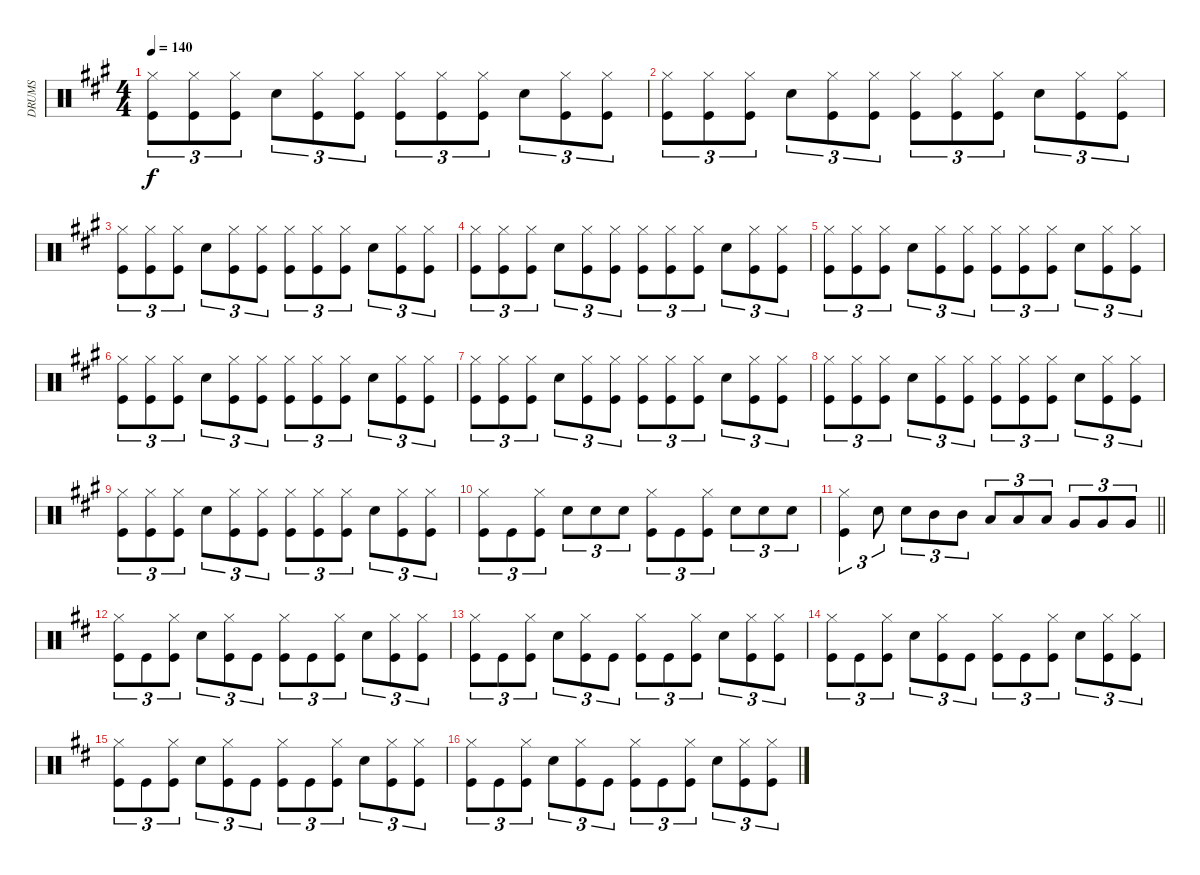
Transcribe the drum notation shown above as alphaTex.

\track ("DRUMS" "DRUMS") {instrument percussion}
\staff {score}
\articulation defaults
\ts (4 4)
\tempo 140
\clef neutral
\ks a
("Hi-Hat (closed)" "Kick (hit)").8{tu (3 2) dy f} ("Hi-Hat (closed)" "Kick (hit)").8{tu (3 2)} ("Hi-Hat (closed)" "Kick (hit)").8{tu (3 2)} "Snare (hit) 2".8{tu (3 2)} ("Hi-Hat (closed)" "Kick (hit)").8{tu (3 2)} ("Hi-Hat (closed)" "Kick (hit)").8{tu (3 2)} ("Hi-Hat (closed)" "Kick (hit)").8{tu (3 2)} ("Hi-Hat (closed)" "Kick (hit)").8{tu (3 2)} ("Hi-Hat (closed)" "Kick (hit)").8{tu (3 2)} "Snare (hit) 2".8{tu (3 2)} ("Hi-Hat (closed)" "Kick (hit)").8{tu (3 2)} ("Hi-Hat (closed)" "Kick (hit)").8{tu (3 2)} |
("Hi-Hat (closed)" "Kick (hit)").8{tu (3 2)} ("Hi-Hat (closed)" "Kick (hit)").8{tu (3 2)} ("Hi-Hat (closed)" "Kick (hit)").8{tu (3 2)} "Snare (hit) 2".8{tu (3 2)} ("Hi-Hat (closed)" "Kick (hit)").8{tu (3 2)} ("Hi-Hat (closed)" "Kick (hit)").8{tu (3 2)} ("Hi-Hat (closed)" "Kick (hit)").8{tu (3 2)} ("Hi-Hat (closed)" "Kick (hit)").8{tu (3 2)} ("Hi-Hat (closed)" "Kick (hit)").8{tu (3 2)} "Snare (hit) 2".8{tu (3 2)} ("Hi-Hat (closed)" "Kick (hit)").8{tu (3 2)} ("Hi-Hat (closed)" "Kick (hit)").8{tu (3 2)} |
("Hi-Hat (closed)" "Kick (hit)").8{tu (3 2)} ("Hi-Hat (closed)" "Kick (hit)").8{tu (3 2)} ("Hi-Hat (closed)" "Kick (hit)").8{tu (3 2)} "Snare (hit) 2".8{tu (3 2)} ("Hi-Hat (closed)" "Kick (hit)").8{tu (3 2)} ("Hi-Hat (closed)" "Kick (hit)").8{tu (3 2)} ("Hi-Hat (closed)" "Kick (hit)").8{tu (3 2)} ("Hi-Hat (closed)" "Kick (hit)").8{tu (3 2)} ("Hi-Hat (closed)" "Kick (hit)").8{tu (3 2)} "Snare (hit) 2".8{tu (3 2)} ("Hi-Hat (closed)" "Kick (hit)").8{tu (3 2)} ("Hi-Hat (closed)" "Kick (hit)").8{tu (3 2)} |
("Hi-Hat (closed)" "Kick (hit)").8{tu (3 2)} ("Hi-Hat (closed)" "Kick (hit)").8{tu (3 2)} ("Hi-Hat (closed)" "Kick (hit)").8{tu (3 2)} "Snare (hit) 2".8{tu (3 2)} ("Hi-Hat (closed)" "Kick (hit)").8{tu (3 2)} ("Hi-Hat (closed)" "Kick (hit)").8{tu (3 2)} ("Hi-Hat (closed)" "Kick (hit)").8{tu (3 2)} ("Hi-Hat (closed)" "Kick (hit)").8{tu (3 2)} ("Hi-Hat (closed)" "Kick (hit)").8{tu (3 2)} "Snare (hit) 2".8{tu (3 2)} ("Hi-Hat (closed)" "Kick (hit)").8{tu (3 2)} ("Hi-Hat (closed)" "Kick (hit)").8{tu (3 2)} |
("Hi-Hat (closed)" "Kick (hit)").8{tu (3 2)} ("Hi-Hat (closed)" "Kick (hit)").8{tu (3 2)} ("Hi-Hat (closed)" "Kick (hit)").8{tu (3 2)} "Snare (hit) 2".8{tu (3 2)} ("Hi-Hat (closed)" "Kick (hit)").8{tu (3 2)} ("Hi-Hat (closed)" "Kick (hit)").8{tu (3 2)} ("Hi-Hat (closed)" "Kick (hit)").8{tu (3 2)} ("Hi-Hat (closed)" "Kick (hit)").8{tu (3 2)} ("Hi-Hat (closed)" "Kick (hit)").8{tu (3 2)} "Snare (hit) 2".8{tu (3 2)} ("Hi-Hat (closed)" "Kick (hit)").8{tu (3 2)} ("Hi-Hat (closed)" "Kick (hit)").8{tu (3 2)} |
("Hi-Hat (closed)" "Kick (hit)").8{tu (3 2)} ("Hi-Hat (closed)" "Kick (hit)").8{tu (3 2)} ("Hi-Hat (closed)" "Kick (hit)").8{tu (3 2)} "Snare (hit) 2".8{tu (3 2)} ("Hi-Hat (closed)" "Kick (hit)").8{tu (3 2)} ("Hi-Hat (closed)" "Kick (hit)").8{tu (3 2)} ("Hi-Hat (closed)" "Kick (hit)").8{tu (3 2)} ("Hi-Hat (closed)" "Kick (hit)").8{tu (3 2)} ("Hi-Hat (closed)" "Kick (hit)").8{tu (3 2)} "Snare (hit) 2".8{tu (3 2)} ("Hi-Hat (closed)" "Kick (hit)").8{tu (3 2)} ("Hi-Hat (closed)" "Kick (hit)").8{tu (3 2)} |
("Hi-Hat (closed)" "Kick (hit)").8{tu (3 2)} ("Hi-Hat (closed)" "Kick (hit)").8{tu (3 2)} ("Hi-Hat (closed)" "Kick (hit)").8{tu (3 2)} "Snare (hit) 2".8{tu (3 2)} ("Hi-Hat (closed)" "Kick (hit)").8{tu (3 2)} ("Hi-Hat (closed)" "Kick (hit)").8{tu (3 2)} ("Hi-Hat (closed)" "Kick (hit)").8{tu (3 2)} ("Hi-Hat (closed)" "Kick (hit)").8{tu (3 2)} ("Hi-Hat (closed)" "Kick (hit)").8{tu (3 2)} "Snare (hit) 2".8{tu (3 2)} ("Hi-Hat (closed)" "Kick (hit)").8{tu (3 2)} ("Hi-Hat (closed)" "Kick (hit)").8{tu (3 2)} |
("Hi-Hat (closed)" "Kick (hit)").8{tu (3 2)} ("Hi-Hat (closed)" "Kick (hit)").8{tu (3 2)} ("Hi-Hat (closed)" "Kick (hit)").8{tu (3 2)} "Snare (hit) 2".8{tu (3 2)} ("Hi-Hat (closed)" "Kick (hit)").8{tu (3 2)} ("Hi-Hat (closed)" "Kick (hit)").8{tu (3 2)} ("Hi-Hat (closed)" "Kick (hit)").8{tu (3 2)} ("Hi-Hat (closed)" "Kick (hit)").8{tu (3 2)} ("Hi-Hat (closed)" "Kick (hit)").8{tu (3 2)} "Snare (hit) 2".8{tu (3 2)} ("Hi-Hat (closed)" "Kick (hit)").8{tu (3 2)} ("Hi-Hat (closed)" "Kick (hit)").8{tu (3 2)} |
("Hi-Hat (closed)" "Kick (hit)").8{tu (3 2)} ("Hi-Hat (closed)" "Kick (hit)").8{tu (3 2)} ("Hi-Hat (closed)" "Kick (hit)").8{tu (3 2)} "Snare (hit) 2".8{tu (3 2)} ("Hi-Hat (closed)" "Kick (hit)").8{tu (3 2)} ("Hi-Hat (closed)" "Kick (hit)").8{tu (3 2)} ("Hi-Hat (closed)" "Kick (hit)").8{tu (3 2)} ("Hi-Hat (closed)" "Kick (hit)").8{tu (3 2)} ("Hi-Hat (closed)" "Kick (hit)").8{tu (3 2)} "Snare (hit) 2".8{tu (3 2)} ("Hi-Hat (closed)" "Kick (hit)").8{tu (3 2)} ("Hi-Hat (closed)" "Kick (hit)").8{tu (3 2)} |
("Hi-Hat (closed)" "Kick (hit)").8{tu (3 2)} "Kick (hit)".8{tu (3 2)} ("Hi-Hat (closed)" "Kick (hit)").8{tu (3 2)} "Snare (hit) 2".8{tu (3 2)} "Snare (hit) 2".8{tu (3 2)} "Snare (hit) 2".8{tu (3 2)} ("Hi-Hat (closed)" "Kick (hit)").8{tu (3 2)} "Kick (hit)".8{tu (3 2)} ("Hi-Hat (closed)" "Kick (hit)").8{tu (3 2)} "Snare (hit) 2".8{tu (3 2)} "Snare (hit) 2".8{tu (3 2)} "Snare (hit) 2".8{tu (3 2)} |
\barLineRight lightlight
("Hi-Hat (closed)" "Kick (hit)").4{tu (3 2)} "Snare (hit) 2".8{tu (3 2)} "Snare (hit) 2".8{tu (3 2)} "Mid Tom (hit)".8{tu (3 2)} "Mid Tom (hit)".8{tu (3 2)} "Low Tom (hit)".8{tu (3 2)} "Low Tom (hit)".8{tu (3 2)} "Low Tom (hit)".8{tu (3 2)} "Very Low Tom (hit)".8{tu (3 2)} "Very Low Tom (hit)".8{tu (3 2)} "Very Low Tom (hit)".8{tu (3 2)} |
\ks d
("Hi-Hat (closed)" "Kick (hit)").8{tu (3 2)} "Kick (hit)".8{tu (3 2)} ("Hi-Hat (closed)" "Kick (hit)").8{tu (3 2)} "Snare (hit) 2".8{tu (3 2)} ("Hi-Hat (closed)" "Kick (hit)").8{tu (3 2)} "Kick (hit)".8{tu (3 2)} ("Hi-Hat (closed)" "Kick (hit)").8{tu (3 2)} "Kick (hit)".8{tu (3 2)} ("Hi-Hat (closed)" "Kick (hit)").8{tu (3 2)} "Snare (hit) 2".8{tu (3 2)} ("Hi-Hat (closed)" "Kick (hit)").8{tu (3 2)} ("Hi-Hat (closed)" "Kick (hit)").8{tu (3 2)} |
("Hi-Hat (closed)" "Kick (hit)").8{tu (3 2)} "Kick (hit)".8{tu (3 2)} ("Hi-Hat (closed)" "Kick (hit)").8{tu (3 2)} "Snare (hit) 2".8{tu (3 2)} ("Hi-Hat (closed)" "Kick (hit)").8{tu (3 2)} "Kick (hit)".8{tu (3 2)} ("Hi-Hat (closed)" "Kick (hit)").8{tu (3 2)} "Kick (hit)".8{tu (3 2)} ("Hi-Hat (closed)" "Kick (hit)").8{tu (3 2)} "Snare (hit) 2".8{tu (3 2)} ("Hi-Hat (closed)" "Kick (hit)").8{tu (3 2)} ("Hi-Hat (closed)" "Kick (hit)").8{tu (3 2)} |
("Hi-Hat (closed)" "Kick (hit)").8{tu (3 2)} "Kick (hit)".8{tu (3 2)} ("Hi-Hat (closed)" "Kick (hit)").8{tu (3 2)} "Snare (hit) 2".8{tu (3 2)} ("Hi-Hat (closed)" "Kick (hit)").8{tu (3 2)} "Kick (hit)".8{tu (3 2)} ("Hi-Hat (closed)" "Kick (hit)").8{tu (3 2)} "Kick (hit)".8{tu (3 2)} ("Hi-Hat (closed)" "Kick (hit)").8{tu (3 2)} "Snare (hit) 2".8{tu (3 2)} ("Hi-Hat (closed)" "Kick (hit)").8{tu (3 2)} ("Hi-Hat (closed)" "Kick (hit)").8{tu (3 2)} |
("Hi-Hat (closed)" "Kick (hit)").8{tu (3 2)} "Kick (hit)".8{tu (3 2)} ("Hi-Hat (closed)" "Kick (hit)").8{tu (3 2)} "Snare (hit) 2".8{tu (3 2)} ("Hi-Hat (closed)" "Kick (hit)").8{tu (3 2)} "Kick (hit)".8{tu (3 2)} ("Hi-Hat (closed)" "Kick (hit)").8{tu (3 2)} "Kick (hit)".8{tu (3 2)} ("Hi-Hat (closed)" "Kick (hit)").8{tu (3 2)} "Snare (hit) 2".8{tu (3 2)} ("Hi-Hat (closed)" "Kick (hit)").8{tu (3 2)} ("Hi-Hat (closed)" "Kick (hit)").8{tu (3 2)} |
("Hi-Hat (closed)" "Kick (hit)").8{tu (3 2)} "Kick (hit)".8{tu (3 2)} ("Hi-Hat (closed)" "Kick (hit)").8{tu (3 2)} "Snare (hit) 2".8{tu (3 2)} ("Hi-Hat (closed)" "Kick (hit)").8{tu (3 2)} "Kick (hit)".8{tu (3 2)} ("Hi-Hat (closed)" "Kick (hit)").8{tu (3 2)} "Kick (hit)".8{tu (3 2)} ("Hi-Hat (closed)" "Kick (hit)").8{tu (3 2)} "Snare (hit) 2".8{tu (3 2)} ("Hi-Hat (closed)" "Kick (hit)").8{tu (3 2)} ("Hi-Hat (closed)" "Kick (hit)").8{tu (3 2)}
